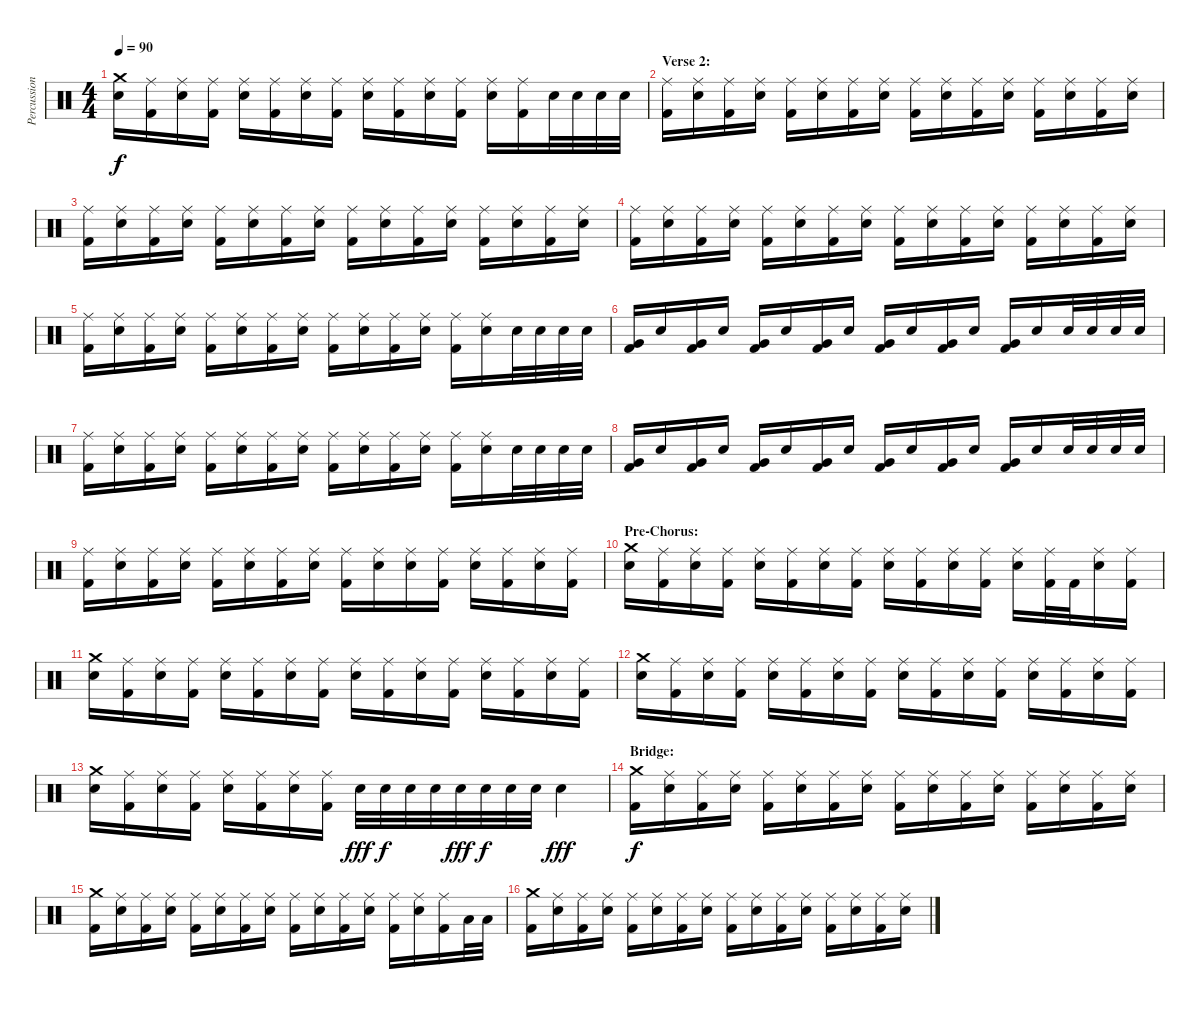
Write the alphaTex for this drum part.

\track ("Percussion" "Percussion") {instrument percussion}
\staff {score}
\articulation defaults
\ts (4 4)
\tempo 90
\clef neutral
\ks c
("Crash medium (hit)" "Electric Snare (hit)").16{dy f} ("Ride (middle)" "Kick (hit) 2").16 ("Ride (middle)" "Electric Snare (hit)").16 ("Ride (middle)" "Kick (hit) 2").16 ("Ride (middle)" "Electric Snare (hit)").16 ("Ride (middle)" "Kick (hit) 2").16 ("Ride (middle)" "Electric Snare (hit)").16 ("Ride (middle)" "Kick (hit) 2").16 ("Ride (middle)" "Electric Snare (hit)").16 ("Ride (middle)" "Kick (hit) 2").16 ("Ride (middle)" "Electric Snare (hit)").16 ("Ride (middle)" "Kick (hit) 2").16 ("Ride (middle)" "Electric Snare (hit)").16 ("Ride (middle)" "Kick (hit) 2").16 "Electric Snare (hit)".32 "Electric Snare (hit)".32 "Electric Snare (hit)".32 "Electric Snare (hit)".32 |
\section ("" "Verse 2:")
("Ride (middle)" "Kick (hit) 2").16 ("Ride (middle)" "Electric Snare (hit)").16 ("Ride (middle)" "Kick (hit) 2").16 ("Ride (middle)" "Electric Snare (hit)").16 ("Ride (middle)" "Kick (hit) 2").16 ("Ride (middle)" "Electric Snare (hit)").16 ("Ride (middle)" "Kick (hit) 2").16 ("Ride (middle)" "Electric Snare (hit)").16 ("Ride (middle)" "Kick (hit) 2").16 ("Ride (middle)" "Electric Snare (hit)").16 ("Ride (middle)" "Kick (hit) 2").16 ("Ride (middle)" "Electric Snare (hit)").16 ("Ride (middle)" "Kick (hit) 2").16 ("Ride (middle)" "Electric Snare (hit)").16 ("Ride (middle)" "Kick (hit) 2").16 ("Ride (middle)" "Electric Snare (hit)").16 |
("Ride (middle)" "Kick (hit) 2").16 ("Ride (middle)" "Electric Snare (hit)").16 ("Ride (middle)" "Kick (hit) 2").16 ("Ride (middle)" "Electric Snare (hit)").16 ("Ride (middle)" "Kick (hit) 2").16 ("Ride (middle)" "Electric Snare (hit)").16 ("Ride (middle)" "Kick (hit) 2").16 ("Ride (middle)" "Electric Snare (hit)").16 ("Ride (middle)" "Kick (hit) 2").16 ("Ride (middle)" "Electric Snare (hit)").16 ("Ride (middle)" "Kick (hit) 2").16 ("Ride (middle)" "Electric Snare (hit)").16 ("Ride (middle)" "Kick (hit) 2").16 ("Ride (middle)" "Electric Snare (hit)").16 ("Ride (middle)" "Kick (hit) 2").16 ("Ride (middle)" "Electric Snare (hit)").16 |
("Ride (middle)" "Kick (hit) 2").16 ("Ride (middle)" "Electric Snare (hit)").16 ("Ride (middle)" "Kick (hit) 2").16 ("Ride (middle)" "Electric Snare (hit)").16 ("Ride (middle)" "Kick (hit) 2").16 ("Ride (middle)" "Electric Snare (hit)").16 ("Ride (middle)" "Kick (hit) 2").16 ("Ride (middle)" "Electric Snare (hit)").16 ("Ride (middle)" "Kick (hit) 2").16 ("Ride (middle)" "Electric Snare (hit)").16 ("Ride (middle)" "Kick (hit) 2").16 ("Ride (middle)" "Electric Snare (hit)").16 ("Ride (middle)" "Kick (hit) 2").16 ("Ride (middle)" "Electric Snare (hit)").16 ("Ride (middle)" "Kick (hit) 2").16 ("Ride (middle)" "Electric Snare (hit)").16 |
("Ride (middle)" "Kick (hit) 2").16 ("Ride (middle)" "Electric Snare (hit)").16 ("Ride (middle)" "Kick (hit) 2").16 ("Ride (middle)" "Electric Snare (hit)").16 ("Ride (middle)" "Kick (hit) 2").16 ("Ride (middle)" "Electric Snare (hit)").16 ("Ride (middle)" "Kick (hit) 2").16 ("Ride (middle)" "Electric Snare (hit)").16 ("Ride (middle)" "Kick (hit) 2").16 ("Ride (middle)" "Electric Snare (hit)").16 ("Ride (middle)" "Kick (hit) 2").16 ("Ride (middle)" "Electric Snare (hit)").16 ("Ride (middle)" "Kick (hit) 2").16 ("Ride (middle)" "Electric Snare (hit)").16 "Electric Snare (hit)".32 "Electric Snare (hit)".32 "Electric Snare (hit)".32 "Electric Snare (hit)".32 |
("Very Low Tom (hit)" "Kick (hit) 2").16 "Electric Snare (hit)".16 ("Very Low Tom (hit)" "Kick (hit) 2").16 "Electric Snare (hit)".16 ("Very Low Tom (hit)" "Kick (hit) 2").16 "Electric Snare (hit)".16 ("Very Low Tom (hit)" "Kick (hit) 2").16 "Electric Snare (hit)".16 ("Very Low Tom (hit)" "Kick (hit) 2").16 "Electric Snare (hit)".16 ("Very Low Tom (hit)" "Kick (hit) 2").16 "Electric Snare (hit)".16 ("Very Low Tom (hit)" "Kick (hit) 2").16 "Electric Snare (hit)".16 "Electric Snare (hit)".32 "Electric Snare (hit)".32 "Electric Snare (hit)".32 "Electric Snare (hit)".32 |
("Ride (middle)" "Kick (hit) 2").16 ("Ride (middle)" "Electric Snare (hit)").16 ("Ride (middle)" "Kick (hit) 2").16 ("Ride (middle)" "Electric Snare (hit)").16 ("Ride (middle)" "Kick (hit) 2").16 ("Ride (middle)" "Electric Snare (hit)").16 ("Ride (middle)" "Kick (hit) 2").16 ("Ride (middle)" "Electric Snare (hit)").16 ("Ride (middle)" "Kick (hit) 2").16 ("Ride (middle)" "Electric Snare (hit)").16 ("Ride (middle)" "Kick (hit) 2").16 ("Ride (middle)" "Electric Snare (hit)").16 ("Ride (middle)" "Kick (hit) 2").16 ("Ride (middle)" "Electric Snare (hit)").16 "Electric Snare (hit)".32 "Electric Snare (hit)".32 "Electric Snare (hit)".32 "Electric Snare (hit)".32 |
("Very Low Tom (hit)" "Kick (hit) 2").16 "Electric Snare (hit)".16 ("Very Low Tom (hit)" "Kick (hit) 2").16 "Electric Snare (hit)".16 ("Very Low Tom (hit)" "Kick (hit) 2").16 "Electric Snare (hit)".16 ("Very Low Tom (hit)" "Kick (hit) 2").16 "Electric Snare (hit)".16 ("Very Low Tom (hit)" "Kick (hit) 2").16 "Electric Snare (hit)".16 ("Very Low Tom (hit)" "Kick (hit) 2").16 "Electric Snare (hit)".16 ("Very Low Tom (hit)" "Kick (hit) 2").16 "Electric Snare (hit)".16 "Electric Snare (hit)".32 "Electric Snare (hit)".32 "Electric Snare (hit)".32 "Electric Snare (hit)".32 |
("Ride (middle)" "Kick (hit) 2").16 ("Ride (middle)" "Electric Snare (hit)").16 ("Ride (middle)" "Kick (hit) 2").16 ("Ride (middle)" "Electric Snare (hit)").16 ("Ride (middle)" "Kick (hit) 2").16 ("Ride (middle)" "Electric Snare (hit)").16 ("Ride (middle)" "Kick (hit) 2").16 ("Ride (middle)" "Electric Snare (hit)").16 ("Ride (middle)" "Kick (hit) 2").16 ("Ride (middle)" "Electric Snare (hit)").16 ("Ride (middle)" "Electric Snare (hit)").16 ("Ride (middle)" "Kick (hit) 2").16 ("Ride (middle)" "Electric Snare (hit)").16 ("Ride (middle)" "Kick (hit) 2").16 ("Ride (middle)" "Electric Snare (hit)").16 ("Ride (middle)" "Kick (hit) 2").16 |
\section ("" "Pre-Chorus:")
("Crash medium (hit)" "Electric Snare (hit)").16 ("Ride (middle)" "Kick (hit) 2").16 ("Ride (middle)" "Electric Snare (hit)").16 ("Ride (middle)" "Kick (hit) 2").16 ("Ride (middle)" "Electric Snare (hit)").16 ("Ride (middle)" "Kick (hit) 2").16 ("Ride (middle)" "Electric Snare (hit)").16 ("Ride (middle)" "Kick (hit) 2").16 ("Ride (middle)" "Electric Snare (hit)").16 ("Ride (middle)" "Kick (hit) 2").16 ("Ride (middle)" "Electric Snare (hit)").16 ("Ride (middle)" "Kick (hit) 2").16 ("Ride (middle)" "Electric Snare (hit)").16 ("Ride (middle)" "Kick (hit) 2").32 "Kick (hit) 2".32 ("Ride (middle)" "Electric Snare (hit)").16 ("Ride (middle)" "Kick (hit) 2").16 |
("Crash medium (hit)" "Electric Snare (hit)").16 ("Ride (middle)" "Kick (hit) 2").16 ("Ride (middle)" "Electric Snare (hit)").16 ("Ride (middle)" "Kick (hit) 2").16 ("Ride (middle)" "Electric Snare (hit)").16 ("Ride (middle)" "Kick (hit) 2").16 ("Ride (middle)" "Electric Snare (hit)").16 ("Ride (middle)" "Kick (hit) 2").16 ("Ride (middle)" "Electric Snare (hit)").16 ("Ride (middle)" "Kick (hit) 2").16 ("Ride (middle)" "Electric Snare (hit)").16 ("Ride (middle)" "Kick (hit) 2").16 ("Ride (middle)" "Electric Snare (hit)").16 ("Ride (middle)" "Kick (hit) 2").16 ("Ride (middle)" "Electric Snare (hit)").16 ("Ride (middle)" "Kick (hit) 2").16 |
("Crash medium (hit)" "Electric Snare (hit)").16 ("Ride (middle)" "Kick (hit) 2").16 ("Ride (middle)" "Electric Snare (hit)").16 ("Ride (middle)" "Kick (hit) 2").16 ("Ride (middle)" "Electric Snare (hit)").16 ("Ride (middle)" "Kick (hit) 2").16 ("Ride (middle)" "Electric Snare (hit)").16 ("Ride (middle)" "Kick (hit) 2").16 ("Ride (middle)" "Electric Snare (hit)").16 ("Ride (middle)" "Kick (hit) 2").16 ("Ride (middle)" "Electric Snare (hit)").16 ("Ride (middle)" "Kick (hit) 2").16 ("Ride (middle)" "Electric Snare (hit)").16 ("Ride (middle)" "Kick (hit) 2").16 ("Ride (middle)" "Electric Snare (hit)").16 ("Ride (middle)" "Kick (hit) 2").16 |
("Crash medium (hit)" "Electric Snare (hit)").16 ("Ride (middle)" "Kick (hit) 2").16 ("Ride (middle)" "Electric Snare (hit)").16 ("Ride (middle)" "Kick (hit) 2").16 ("Ride (middle)" "Electric Snare (hit)").16 ("Ride (middle)" "Kick (hit) 2").16 ("Ride (middle)" "Electric Snare (hit)").16 ("Ride (middle)" "Kick (hit) 2").16 "Electric Snare (hit)".32{dy fff} "Electric Snare (hit)".32{dy f} "Electric Snare (hit)".32 "Electric Snare (hit)".32 "Electric Snare (hit)".32{dy fff} "Electric Snare (hit)".32{dy f} "Electric Snare (hit)".32 "Electric Snare (hit)".32 "Electric Snare (hit)".4{dy fff} |
\section ("" "Bridge:")
("Crash medium (hit)" "Kick (hit) 2").16{dy f} ("Ride (middle)" "Electric Snare (hit)").16 ("Ride (middle)" "Kick (hit) 2").16 ("Ride (middle)" "Electric Snare (hit)").16 ("Ride (middle)" "Kick (hit) 2").16 ("Ride (middle)" "Electric Snare (hit)").16 ("Ride (middle)" "Kick (hit) 2").16 ("Ride (middle)" "Electric Snare (hit)").16 ("Ride (middle)" "Kick (hit) 2").16 ("Ride (middle)" "Electric Snare (hit)").16 ("Ride (middle)" "Kick (hit) 2").16 ("Ride (middle)" "Electric Snare (hit)").16 ("Ride (middle)" "Kick (hit) 2").16 ("Ride (middle)" "Electric Snare (hit)").16 ("Ride (middle)" "Kick (hit) 2").16 ("Ride (middle)" "Electric Snare (hit)").16 |
("Crash medium (hit)" "Kick (hit) 2").16 ("Ride (middle)" "Electric Snare (hit)").16 ("Ride (middle)" "Kick (hit) 2").16 ("Ride (middle)" "Electric Snare (hit)").16 ("Ride (middle)" "Kick (hit) 2").16 ("Ride (middle)" "Electric Snare (hit)").16 ("Ride (middle)" "Kick (hit) 2").16 ("Ride (middle)" "Electric Snare (hit)").16 ("Ride (middle)" "Kick (hit) 2").16 ("Ride (middle)" "Electric Snare (hit)").16 ("Ride (middle)" "Kick (hit) 2").16 ("Ride (middle)" "Electric Snare (hit)").16 ("Ride (middle)" "Kick (hit) 2").16 ("Ride (middle)" "Electric Snare (hit)").16 ("Ride (middle)" "Kick (hit) 2").16 "Low Tom (hit)".32 "Low Tom (hit)".32 |
("Crash medium (hit)" "Kick (hit) 2").16 ("Ride (middle)" "Electric Snare (hit)").16 ("Ride (middle)" "Kick (hit) 2").16 ("Ride (middle)" "Electric Snare (hit)").16 ("Ride (middle)" "Kick (hit) 2").16 ("Ride (middle)" "Electric Snare (hit)").16 ("Ride (middle)" "Kick (hit) 2").16 ("Ride (middle)" "Electric Snare (hit)").16 ("Ride (middle)" "Kick (hit) 2").16 ("Ride (middle)" "Electric Snare (hit)").16 ("Ride (middle)" "Kick (hit) 2").16 ("Ride (middle)" "Electric Snare (hit)").16 ("Ride (middle)" "Kick (hit) 2").16 ("Ride (middle)" "Electric Snare (hit)").16 ("Ride (middle)" "Kick (hit) 2").16 ("Ride (middle)" "Electric Snare (hit)").16
